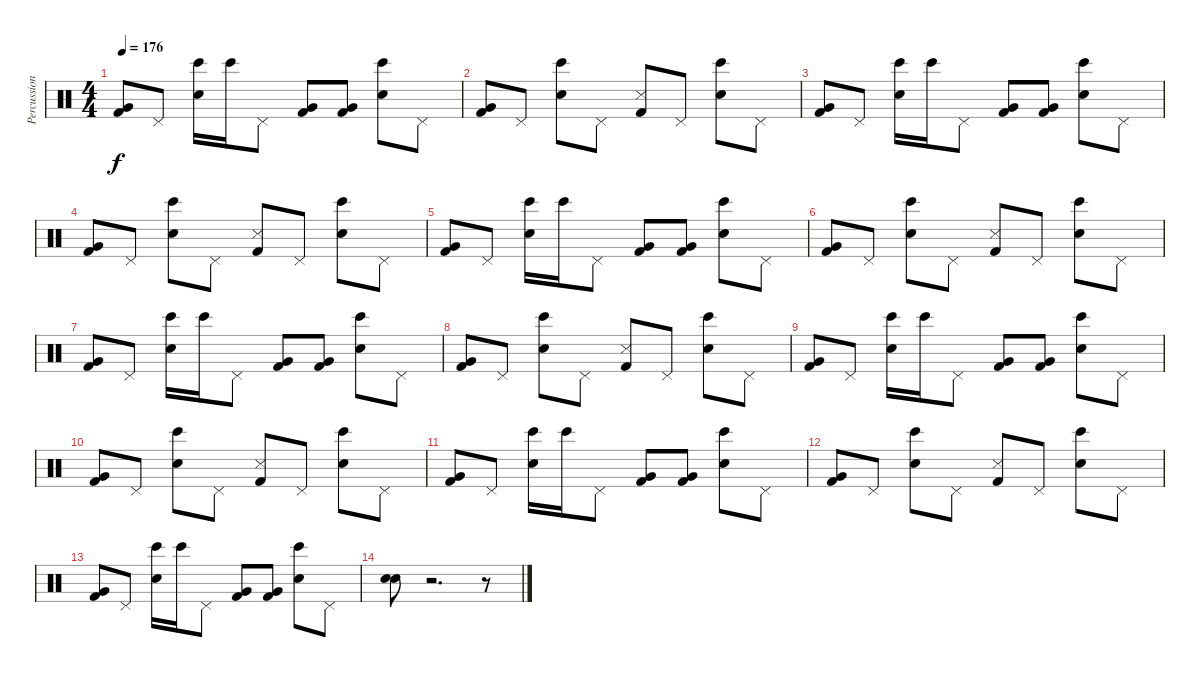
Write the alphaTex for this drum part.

\track ("Percussions" "Percussion") {instrument percussion}
\staff {score}
\articulation defaults
\ts (4 4)
\tempo 176
\clef neutral
\ks c
("Kick (hit) 2" "Very Low Tom (hit)").8{dy f} "Pedal Hi-Hat (hit)".8 ("Snare (hit) 2" "Bongo High (hit)").16 "Bongo High (hit)".16 "Pedal Hi-Hat (hit)".8 ("Kick (hit) 2" "Very Low Tom (hit)").8 ("Kick (hit) 2" "Very Low Tom (hit)").8 ("Snare (hit) 2" "Bongo High (hit)").8 "Pedal Hi-Hat (hit)".8 |
("Kick (hit) 2" "Very Low Tom (hit)").8 "Pedal Hi-Hat (hit)".8 ("Snare (hit) 2" "Bongo High (hit)").8 "Pedal Hi-Hat (hit)".8 ("Kick (hit) 2" "Snare (side stick) 3").8 "Pedal Hi-Hat (hit)".8 ("Snare (hit) 2" "Bongo High (hit)").8 "Pedal Hi-Hat (hit)".8 |
("Kick (hit) 2" "Very Low Tom (hit)").8 "Pedal Hi-Hat (hit)".8 ("Snare (hit) 2" "Bongo High (hit)").16 "Bongo High (hit)".16 "Pedal Hi-Hat (hit)".8 ("Kick (hit) 2" "Very Low Tom (hit)").8 ("Kick (hit) 2" "Very Low Tom (hit)").8 ("Snare (hit) 2" "Bongo High (hit)").8 "Pedal Hi-Hat (hit)".8 |
("Kick (hit) 2" "Very Low Tom (hit)").8 "Pedal Hi-Hat (hit)".8 ("Snare (hit) 2" "Bongo High (hit)").8 "Pedal Hi-Hat (hit)".8 ("Kick (hit) 2" "Snare (side stick) 3").8 "Pedal Hi-Hat (hit)".8 ("Snare (hit) 2" "Bongo High (hit)").8 "Pedal Hi-Hat (hit)".8 |
("Kick (hit) 2" "Very Low Tom (hit)").8 "Pedal Hi-Hat (hit)".8 ("Snare (hit) 2" "Bongo High (hit)").16 "Bongo High (hit)".16 "Pedal Hi-Hat (hit)".8 ("Kick (hit) 2" "Very Low Tom (hit)").8 ("Kick (hit) 2" "Very Low Tom (hit)").8 ("Snare (hit) 2" "Bongo High (hit)").8 "Pedal Hi-Hat (hit)".8 |
("Kick (hit) 2" "Very Low Tom (hit)").8 "Pedal Hi-Hat (hit)".8 ("Snare (hit) 2" "Bongo High (hit)").8 "Pedal Hi-Hat (hit)".8 ("Kick (hit) 2" "Snare (side stick) 3").8 "Pedal Hi-Hat (hit)".8 ("Snare (hit) 2" "Bongo High (hit)").8 "Pedal Hi-Hat (hit)".8 |
("Kick (hit) 2" "Very Low Tom (hit)").8 "Pedal Hi-Hat (hit)".8 ("Snare (hit) 2" "Bongo High (hit)").16 "Bongo High (hit)".16 "Pedal Hi-Hat (hit)".8 ("Kick (hit) 2" "Very Low Tom (hit)").8 ("Kick (hit) 2" "Very Low Tom (hit)").8 ("Snare (hit) 2" "Bongo High (hit)").8 "Pedal Hi-Hat (hit)".8 |
("Kick (hit) 2" "Very Low Tom (hit)").8 "Pedal Hi-Hat (hit)".8 ("Snare (hit) 2" "Bongo High (hit)").8 "Pedal Hi-Hat (hit)".8 ("Kick (hit) 2" "Snare (side stick) 3").8 "Pedal Hi-Hat (hit)".8 ("Snare (hit) 2" "Bongo High (hit)").8 "Pedal Hi-Hat (hit)".8 |
("Kick (hit) 2" "Very Low Tom (hit)").8 "Pedal Hi-Hat (hit)".8 ("Snare (hit) 2" "Bongo High (hit)").16 "Bongo High (hit)".16 "Pedal Hi-Hat (hit)".8 ("Kick (hit) 2" "Very Low Tom (hit)").8 ("Kick (hit) 2" "Very Low Tom (hit)").8 ("Snare (hit) 2" "Bongo High (hit)").8 "Pedal Hi-Hat (hit)".8 |
("Kick (hit) 2" "Very Low Tom (hit)").8 "Pedal Hi-Hat (hit)".8 ("Snare (hit) 2" "Bongo High (hit)").8 "Pedal Hi-Hat (hit)".8 ("Kick (hit) 2" "Snare (side stick) 3").8 "Pedal Hi-Hat (hit)".8 ("Snare (hit) 2" "Bongo High (hit)").8 "Pedal Hi-Hat (hit)".8 |
("Kick (hit) 2" "Very Low Tom (hit)").8 "Pedal Hi-Hat (hit)".8 ("Snare (hit) 2" "Bongo High (hit)").16 "Bongo High (hit)".16 "Pedal Hi-Hat (hit)".8 ("Kick (hit) 2" "Very Low Tom (hit)").8 ("Kick (hit) 2" "Very Low Tom (hit)").8 ("Snare (hit) 2" "Bongo High (hit)").8 "Pedal Hi-Hat (hit)".8 |
("Kick (hit) 2" "Very Low Tom (hit)").8 "Pedal Hi-Hat (hit)".8 ("Snare (hit) 2" "Bongo High (hit)").8 "Pedal Hi-Hat (hit)".8 ("Kick (hit) 2" "Snare (side stick) 3").8 "Pedal Hi-Hat (hit)".8 ("Snare (hit) 2" "Bongo High (hit)").8 "Pedal Hi-Hat (hit)".8 |
("Kick (hit) 2" "Very Low Tom (hit)").8 "Pedal Hi-Hat (hit)".8 ("Snare (hit) 2" "Bongo High (hit)").16 "Bongo High (hit)".16 "Pedal Hi-Hat (hit)".8 ("Kick (hit) 2" "Very Low Tom (hit)").8 ("Kick (hit) 2" "Very Low Tom (hit)").8 ("Snare (hit) 2" "Bongo High (hit)").8 "Pedal Hi-Hat (hit)".8 |
("Snare (hit) 2" "Electric Snare (hit)").8 r.2{d} r.8
